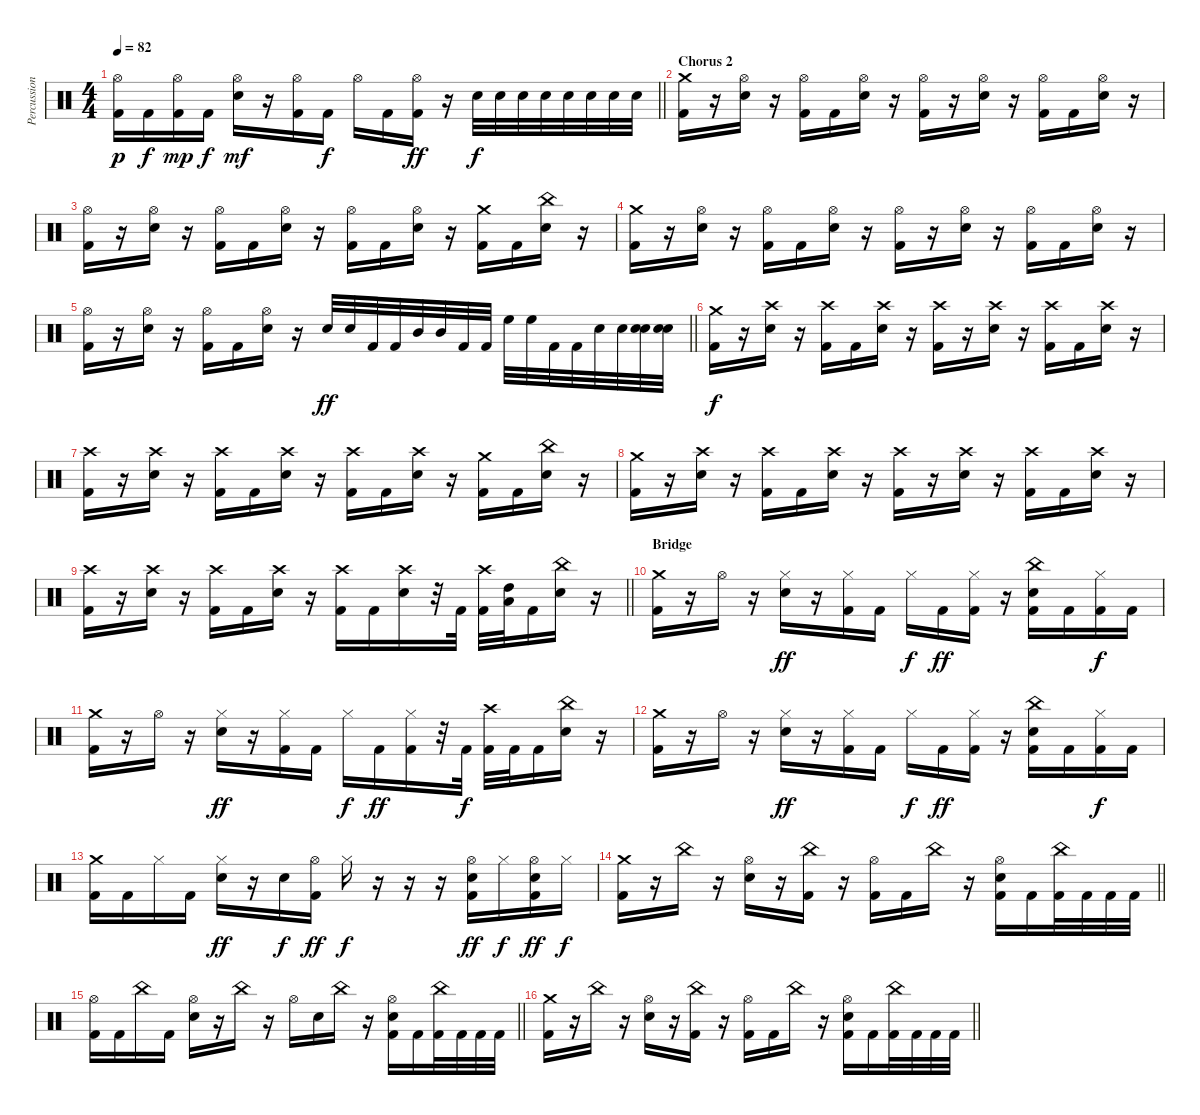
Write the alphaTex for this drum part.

\track ("Percussion" "Percussion") {solo instrument percussion}
\staff {score}
\articulation defaults
\ts (4 4)
\tempo 82
\clef neutral
\barLineRight lightlight
\ks c
("Hi-Hat (open)" "Kick (hit) 2").16{dy p} "Kick (hit) 2".16{dy f} ("Hi-Hat (open)" "Kick (hit) 2").16{dy mp} "Kick (hit) 2".16{dy f} ("Hi-Hat (open)" "Electric Snare (hit)").16{dy mf} r.16 ("Hi-Hat (open)" "Kick (hit) 2").16 "Kick (hit) 2".16{dy f} "Hi-Hat (open)".16 "Kick (hit) 2".16 ("Hi-Hat (open)" "Kick (hit) 2").16{dy ff} r.16 "Electric Snare (hit)".32{dy f} "Electric Snare (hit)".32 "Electric Snare (hit)".32 "Electric Snare (hit)".32 "Electric Snare (hit)".32 "Electric Snare (hit)".32 "Electric Snare (hit)".32 "Electric Snare (hit)".32 |
\section ("" "Chorus 2")
("Crash medium (hit)" "Kick (hit) 2").16 r.16 ("Hi-Hat (open)" "Electric Snare (hit)").16 r.16 ("Hi-Hat (open)" "Kick (hit) 2").16 "Kick (hit) 2".16 ("Hi-Hat (open)" "Electric Snare (hit)").16 r.16 ("Hi-Hat (open)" "Kick (hit) 2").16 r.16 ("Hi-Hat (open)" "Electric Snare (hit)").16 r.16 ("Hi-Hat (open)" "Kick (hit) 2").16 "Kick (hit) 2".16 ("Hi-Hat (open)" "Electric Snare (hit)").16 r.16 |
("Hi-Hat (open)" "Kick (hit) 2").16 r.16 ("Hi-Hat (open)" "Electric Snare (hit)").16 r.16 ("Hi-Hat (open)" "Kick (hit) 2").16 "Kick (hit) 2".16 ("Hi-Hat (open)" "Electric Snare (hit)").16 r.16 ("Hi-Hat (open)" "Kick (hit) 2").16 "Kick (hit) 2".16 ("Hi-Hat (open)" "Electric Snare (hit)").16 r.16 ("Crash medium (hit)" "Kick (hit) 2").16 "Kick (hit) 2".16 ("China (hit)" "Electric Snare (hit)").16 r.16 |
("Crash medium (hit)" "Kick (hit) 2").16 r.16 ("Hi-Hat (open)" "Electric Snare (hit)").16 r.16 ("Hi-Hat (open)" "Kick (hit) 2").16 "Kick (hit) 2".16 ("Hi-Hat (open)" "Electric Snare (hit)").16 r.16 ("Hi-Hat (open)" "Kick (hit) 2").16 r.16 ("Hi-Hat (open)" "Electric Snare (hit)").16 r.16 ("Hi-Hat (open)" "Kick (hit) 2").16 "Kick (hit) 2".16 ("Hi-Hat (open)" "Electric Snare (hit)").16 r.16 |
\barLineRight lightlight
("Hi-Hat (open)" "Kick (hit) 2").16 r.16 ("Hi-Hat (open)" "Electric Snare (hit)").16 r.16 ("Hi-Hat (open)" "Kick (hit) 2").16 "Kick (hit) 2".16 ("Hi-Hat (open)" "Electric Snare (hit)").16 r.16 "Electric Snare (hit)".32{dy ff} "Electric Snare (hit)".32 "Kick (hit) 2".32 "Kick (hit) 2".32 "Mid Tom (hit)".32 "Mid Tom (hit)".32 "Kick (hit) 2".32 "Kick (hit) 2".32 "High Floor Tom (hit)".32 "High Floor Tom (hit)".32 "Kick (hit) 2".32 "Kick (hit) 2".32 "Electric Snare (hit)".32 "Electric Snare (hit)".32 ("Electric Snare (hit)" "Electric Snare (hit)").32 ("Electric Snare (hit)" "Electric Snare (hit)").32 |
("Crash medium (hit)" "Kick (hit) 2").16{dy f} r.16 ("Crash high (hit)" "Electric Snare (hit)").16 r.16 ("Crash high (hit)" "Kick (hit) 2").16 "Kick (hit) 2".16 ("Crash high (hit)" "Electric Snare (hit)").16 r.16 ("Crash high (hit)" "Kick (hit) 2").16 r.16 ("Crash high (hit)" "Electric Snare (hit)").16 r.16 ("Crash high (hit)" "Kick (hit) 2").16 "Kick (hit) 2".16 ("Crash high (hit)" "Electric Snare (hit)").16 r.16 |
("Crash high (hit)" "Kick (hit) 2").16 r.16 ("Crash high (hit)" "Electric Snare (hit)").16 r.16 ("Crash high (hit)" "Kick (hit) 2").16 "Kick (hit) 2".16 ("Crash high (hit)" "Electric Snare (hit)").16 r.16 ("Crash high (hit)" "Kick (hit) 2").16 "Kick (hit) 2".16 ("Crash high (hit)" "Electric Snare (hit)").16 r.16 ("Crash medium (hit)" "Kick (hit) 2").16 "Kick (hit) 2".16 ("China (hit)" "Electric Snare (hit)").16 r.16 |
("Crash medium (hit)" "Kick (hit) 2").16 r.16 ("Crash high (hit)" "Electric Snare (hit)").16 r.16 ("Crash high (hit)" "Kick (hit) 2").16 "Kick (hit) 2".16 ("Crash high (hit)" "Electric Snare (hit)").16 r.16 ("Crash high (hit)" "Kick (hit) 2").16 r.16 ("Crash high (hit)" "Electric Snare (hit)").16 r.16 ("Crash high (hit)" "Kick (hit) 2").16 "Kick (hit) 2".16 ("Crash high (hit)" "Electric Snare (hit)").16 r.16 |
\barLineRight lightlight
("Crash high (hit)" "Kick (hit) 2").16 r.16 ("Crash high (hit)" "Electric Snare (hit)").16 r.16 ("Crash high (hit)" "Kick (hit) 2").16 "Kick (hit) 2".16 ("Crash high (hit)" "Electric Snare (hit)").16 r.16 ("Crash high (hit)" "Kick (hit) 2").16 "Kick (hit) 2".16 ("Crash high (hit)" "Electric Snare (hit)").16 r.32 "Kick (hit) 2".32 ("Crash high (hit)" "Kick (hit) 2").32 ("Low Tom (hit)" "High Tom (hit)").32 "Kick (hit) 2".16 ("China (hit)" "Electric Snare (hit)").16 r.16 |
\section ("" "Bridge")
("Crash medium (hit)" "Kick (hit) 2").16 r.16 "Hi-Hat (open)".16 r.16 ("Hi-Hat (closed)" "Electric Snare (hit)").16{dy ff} r.16 ("Hi-Hat (closed)" "Kick (hit) 2").16 "Kick (hit) 2".16 "Hi-Hat (closed)".16{dy f} "Kick (hit) 2".16{dy ff} ("Hi-Hat (closed)" "Kick (hit) 2").16 r.16 ("China (hit)" "Electric Snare (hit)" "Kick (hit) 2").16 "Kick (hit) 2".16 ("Hi-Hat (closed)" "Kick (hit) 2").16{dy f} "Kick (hit) 2".16 |
("Crash medium (hit)" "Kick (hit) 2").16 r.16 "Hi-Hat (open)".16 r.16 ("Hi-Hat (closed)" "Electric Snare (hit)").16{dy ff} r.16 ("Hi-Hat (closed)" "Kick (hit) 2").16 "Kick (hit) 2".16 "Hi-Hat (closed)".16{dy f} "Kick (hit) 2".16{dy ff} ("Hi-Hat (closed)" "Kick (hit) 2").16 r.32 "Kick (hit) 2".32{dy f} ("Crash high (hit)" "Kick (hit) 2").32 "Kick (hit) 2".32 "Kick (hit) 2".16 ("China (hit)" "Electric Snare (hit)").16 r.16 |
("Crash medium (hit)" "Kick (hit) 2").16 r.16 "Hi-Hat (open)".16 r.16 ("Hi-Hat (closed)" "Electric Snare (hit)").16{dy ff} r.16 ("Hi-Hat (closed)" "Kick (hit) 2").16 "Kick (hit) 2".16 "Hi-Hat (closed)".16{dy f} "Kick (hit) 2".16{dy ff} ("Hi-Hat (closed)" "Kick (hit) 2").16 r.16 ("China (hit)" "Electric Snare (hit)" "Kick (hit) 2").16 "Kick (hit) 2".16 ("Hi-Hat (closed)" "Kick (hit) 2").16{dy f} "Kick (hit) 2".16 |
("Crash medium (hit)" "Kick (hit) 2").16 "Kick (hit) 2".16 "Hi-Hat (closed)".16 "Kick (hit) 2".16 ("Hi-Hat (closed)" "Electric Snare (hit)").16{dy ff} r.16 "Electric Snare (hit)".16{dy f} ("Hi-Hat (open)" "Kick (hit) 2").16{dy ff} "Hi-Hat (closed)".16{dy f} r.16 r.16 r.16 ("Hi-Hat (open)" "Electric Snare (hit)" "Kick (hit) 2").16{dy ff} "Hi-Hat (closed)".16{dy f} ("Hi-Hat (open)" "Electric Snare (hit)" "Kick (hit) 2").16{dy ff} "Hi-Hat (closed)".16{dy f} |
\barLineRight lightlight
("Crash medium (hit)" "Kick (hit) 2").16 r.16 "China (hit)".16 r.16 ("Hi-Hat (open)" "Electric Snare (hit)").16 r.16 ("China (hit)" "Kick (hit) 2").16 r.16 ("Hi-Hat (open)" "Kick (hit) 2").16 "Kick (hit) 2".16 "China (hit)".16 r.16 ("Hi-Hat (open)" "Electric Snare (hit)" "Kick (hit) 2").16 "Kick (hit) 2".16 ("China (hit)" "Kick (hit) 2").32 "Kick (hit) 2".32 "Kick (hit) 2".32 "Kick (hit) 2".32 |
\barLineRight lightlight
("Hi-Hat (open)" "Kick (hit) 2").16 "Kick (hit) 2".16 "China (hit)".16 "Kick (hit) 2".16 ("Hi-Hat (open)" "Electric Snare (hit)").16 r.16 "China (hit)".16 r.16 "Hi-Hat (open)".16 "Electric Snare (hit)".16 "China (hit)".16 r.16 ("Hi-Hat (open)" "Electric Snare (hit)" "Kick (hit) 2").16 "Kick (hit) 2".16 ("China (hit)" "Kick (hit) 2").32 "Kick (hit) 2".32 "Kick (hit) 2".32 "Kick (hit) 2".32 |
\barLineRight lightlight
("Crash medium (hit)" "Kick (hit) 2").16 r.16 "China (hit)".16 r.16 ("Hi-Hat (open)" "Electric Snare (hit)").16 r.16 ("China (hit)" "Kick (hit) 2").16 r.16 ("Hi-Hat (open)" "Kick (hit) 2").16 "Kick (hit) 2".16 "China (hit)".16 r.16 ("Hi-Hat (open)" "Electric Snare (hit)" "Kick (hit) 2").16 "Kick (hit) 2".16 ("China (hit)" "Kick (hit) 2").32 "Kick (hit) 2".32 "Kick (hit) 2".32 "Kick (hit) 2".32
